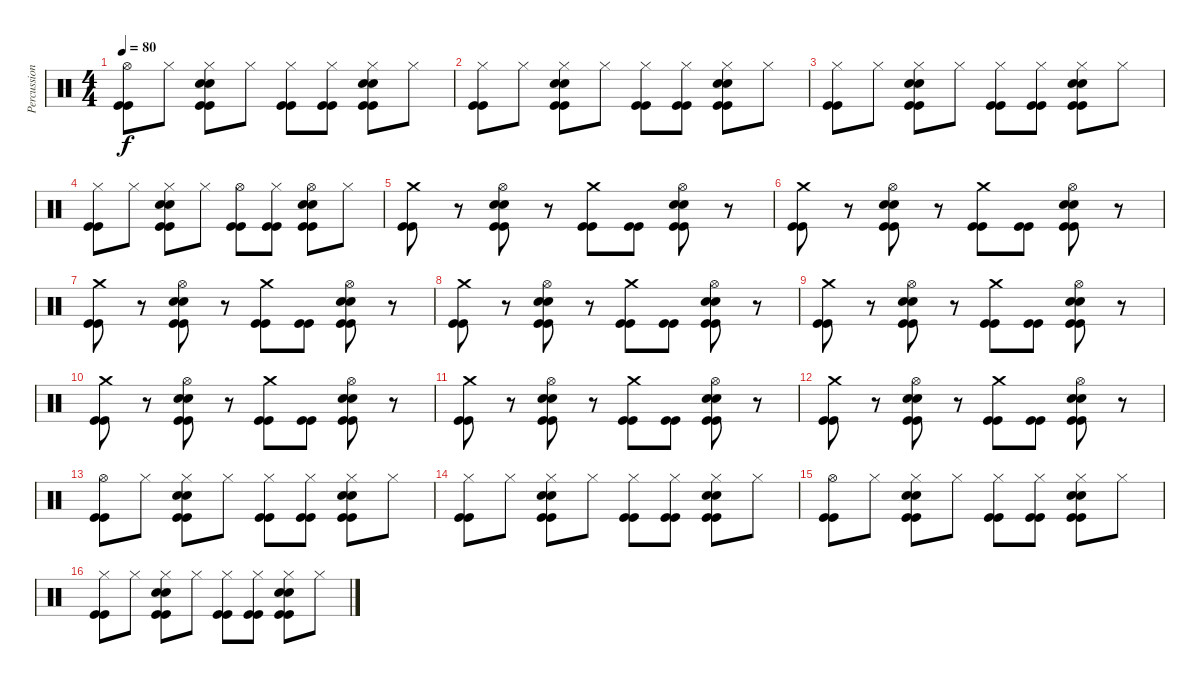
\track ("Percussion" "Percussion") {instrument percussion}
\staff {score}
\articulation defaults
\ts (4 4)
\tempo 80
\clef neutral
\ks c
("Hi-Hat (open)" "Kick (hit)" "Kick (hit)").8{dy f} "Hi-Hat (closed)".8 ("Hi-Hat (closed)" "Kick (hit)" "Kick (hit)" "Electric Snare (hit)" "Electric Snare (hit)").8 "Hi-Hat (closed)".8 ("Hi-Hat (closed)" "Kick (hit)" "Kick (hit)").8 ("Hi-Hat (closed)" "Kick (hit)" "Kick (hit)").8 ("Hi-Hat (closed)" "Kick (hit)" "Kick (hit)" "Electric Snare (hit)" "Electric Snare (hit)").8 "Hi-Hat (closed)".8 |
("Hi-Hat (closed)" "Kick (hit)" "Kick (hit)").8 "Hi-Hat (closed)".8 ("Hi-Hat (closed)" "Kick (hit)" "Kick (hit)" "Electric Snare (hit)" "Electric Snare (hit)").8 "Hi-Hat (closed)".8 ("Hi-Hat (closed)" "Kick (hit)" "Kick (hit)").8 ("Hi-Hat (closed)" "Kick (hit)" "Kick (hit)").8 ("Hi-Hat (closed)" "Kick (hit)" "Kick (hit)" "Electric Snare (hit)" "Electric Snare (hit)").8 "Hi-Hat (closed)".8 |
("Hi-Hat (closed)" "Kick (hit)" "Kick (hit)").8 "Hi-Hat (closed)".8 ("Hi-Hat (closed)" "Kick (hit)" "Kick (hit)" "Electric Snare (hit)" "Electric Snare (hit)").8 "Hi-Hat (closed)".8 ("Hi-Hat (closed)" "Kick (hit)" "Kick (hit)").8 ("Hi-Hat (closed)" "Kick (hit)" "Kick (hit)").8 ("Hi-Hat (closed)" "Kick (hit)" "Kick (hit)" "Electric Snare (hit)" "Electric Snare (hit)").8 "Hi-Hat (closed)".8 |
("Hi-Hat (closed)" "Kick (hit)" "Kick (hit)").8 "Hi-Hat (closed)".8 ("Hi-Hat (closed)" "Kick (hit)" "Kick (hit)" "Electric Snare (hit)" "Electric Snare (hit)").8 "Hi-Hat (closed)".8 ("Hi-Hat (open)" "Kick (hit)" "Kick (hit)").8 ("Hi-Hat (closed)" "Kick (hit)" "Kick (hit)").8 ("Hi-Hat (open)" "Kick (hit)" "Kick (hit)" "Electric Snare (hit)" "Electric Snare (hit)").8 "Hi-Hat (closed)".8 |
("Crash medium (hit)" "Kick (hit)" "Kick (hit)").8 r.8 ("Hi-Hat (open)" "Kick (hit)" "Kick (hit)" "Electric Snare (hit)" "Electric Snare (hit)").8 r.8 ("Crash medium (hit)" "Kick (hit)" "Kick (hit)").8 ("Kick (hit)" "Kick (hit)").8 ("Hi-Hat (open)" "Kick (hit)" "Kick (hit)" "Electric Snare (hit)" "Electric Snare (hit)").8 r.8 |
("Crash medium (hit)" "Kick (hit)" "Kick (hit)").8 r.8 ("Hi-Hat (open)" "Kick (hit)" "Kick (hit)" "Electric Snare (hit)" "Electric Snare (hit)").8 r.8 ("Crash medium (hit)" "Kick (hit)" "Kick (hit)").8 ("Kick (hit)" "Kick (hit)").8 ("Hi-Hat (open)" "Kick (hit)" "Kick (hit)" "Electric Snare (hit)" "Electric Snare (hit)").8 r.8 |
("Crash medium (hit)" "Kick (hit)" "Kick (hit)").8 r.8 ("Hi-Hat (open)" "Kick (hit)" "Kick (hit)" "Electric Snare (hit)" "Electric Snare (hit)").8 r.8 ("Crash medium (hit)" "Kick (hit)" "Kick (hit)").8 ("Kick (hit)" "Kick (hit)").8 ("Hi-Hat (open)" "Kick (hit)" "Kick (hit)" "Electric Snare (hit)" "Electric Snare (hit)").8 r.8 |
("Crash medium (hit)" "Kick (hit)" "Kick (hit)").8 r.8 ("Hi-Hat (open)" "Kick (hit)" "Kick (hit)" "Electric Snare (hit)" "Electric Snare (hit)").8 r.8 ("Crash medium (hit)" "Kick (hit)" "Kick (hit)").8 ("Kick (hit)" "Kick (hit)").8 ("Hi-Hat (open)" "Kick (hit)" "Kick (hit)" "Electric Snare (hit)" "Electric Snare (hit)").8 r.8 |
("Crash medium (hit)" "Kick (hit)" "Kick (hit)").8 r.8 ("Hi-Hat (open)" "Kick (hit)" "Kick (hit)" "Electric Snare (hit)" "Electric Snare (hit)").8 r.8 ("Crash medium (hit)" "Kick (hit)" "Kick (hit)").8 ("Kick (hit)" "Kick (hit)").8 ("Hi-Hat (open)" "Kick (hit)" "Kick (hit)" "Electric Snare (hit)" "Electric Snare (hit)").8 r.8 |
("Crash medium (hit)" "Kick (hit)" "Kick (hit)").8 r.8 ("Hi-Hat (open)" "Kick (hit)" "Kick (hit)" "Electric Snare (hit)" "Electric Snare (hit)").8 r.8 ("Crash medium (hit)" "Kick (hit)" "Kick (hit)").8 ("Kick (hit)" "Kick (hit)").8 ("Hi-Hat (open)" "Kick (hit)" "Kick (hit)" "Electric Snare (hit)" "Electric Snare (hit)").8 r.8 |
("Crash medium (hit)" "Kick (hit)" "Kick (hit)").8 r.8 ("Hi-Hat (open)" "Kick (hit)" "Kick (hit)" "Electric Snare (hit)" "Electric Snare (hit)").8 r.8 ("Crash medium (hit)" "Kick (hit)" "Kick (hit)").8 ("Kick (hit)" "Kick (hit)").8 ("Hi-Hat (open)" "Kick (hit)" "Kick (hit)" "Electric Snare (hit)" "Electric Snare (hit)").8 r.8 |
("Crash medium (hit)" "Kick (hit)" "Kick (hit)").8 r.8 ("Hi-Hat (open)" "Kick (hit)" "Kick (hit)" "Electric Snare (hit)" "Electric Snare (hit)").8 r.8 ("Crash medium (hit)" "Kick (hit)" "Kick (hit)").8 ("Kick (hit)" "Kick (hit)").8 ("Hi-Hat (open)" "Kick (hit)" "Kick (hit)" "Electric Snare (hit)" "Electric Snare (hit)").8 r.8 |
("Hi-Hat (open)" "Kick (hit)" "Kick (hit)").8 "Hi-Hat (closed)".8 ("Hi-Hat (closed)" "Kick (hit)" "Kick (hit)" "Electric Snare (hit)" "Electric Snare (hit)").8 "Hi-Hat (closed)".8 ("Hi-Hat (closed)" "Kick (hit)" "Kick (hit)").8 ("Hi-Hat (closed)" "Kick (hit)" "Kick (hit)").8 ("Hi-Hat (closed)" "Kick (hit)" "Kick (hit)" "Electric Snare (hit)" "Electric Snare (hit)").8 "Hi-Hat (closed)".8 |
("Hi-Hat (closed)" "Kick (hit)" "Kick (hit)").8 "Hi-Hat (closed)".8 ("Hi-Hat (closed)" "Kick (hit)" "Kick (hit)" "Electric Snare (hit)" "Electric Snare (hit)").8 "Hi-Hat (closed)".8 ("Hi-Hat (closed)" "Kick (hit)" "Kick (hit)").8 ("Hi-Hat (closed)" "Kick (hit)" "Kick (hit)").8 ("Hi-Hat (closed)" "Kick (hit)" "Kick (hit)" "Electric Snare (hit)" "Electric Snare (hit)").8 "Hi-Hat (closed)".8 |
("Hi-Hat (open)" "Kick (hit)" "Kick (hit)").8 "Hi-Hat (closed)".8 ("Hi-Hat (closed)" "Kick (hit)" "Kick (hit)" "Electric Snare (hit)" "Electric Snare (hit)").8 "Hi-Hat (closed)".8 ("Hi-Hat (closed)" "Kick (hit)" "Kick (hit)").8 ("Hi-Hat (closed)" "Kick (hit)" "Kick (hit)").8 ("Hi-Hat (closed)" "Kick (hit)" "Kick (hit)" "Electric Snare (hit)" "Electric Snare (hit)").8 "Hi-Hat (closed)".8 |
("Hi-Hat (closed)" "Kick (hit)" "Kick (hit)").8 "Hi-Hat (closed)".8 ("Hi-Hat (closed)" "Kick (hit)" "Kick (hit)" "Electric Snare (hit)" "Electric Snare (hit)").8 "Hi-Hat (closed)".8 ("Hi-Hat (closed)" "Kick (hit)" "Kick (hit)").8 ("Hi-Hat (closed)" "Kick (hit)" "Kick (hit)").8 ("Hi-Hat (closed)" "Kick (hit)" "Kick (hit)" "Electric Snare (hit)" "Electric Snare (hit)").8 "Hi-Hat (closed)".8
